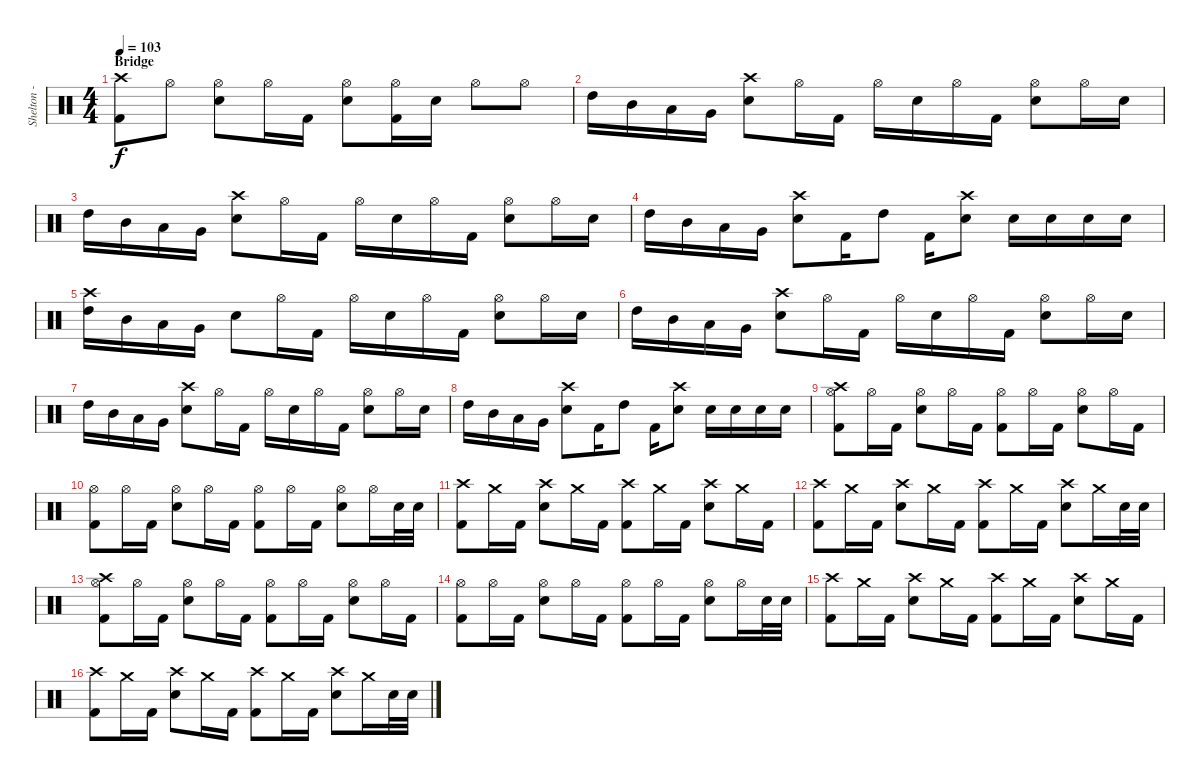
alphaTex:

\track ("Shelton - Drums" "Shelton - ") {instrument percussion}
\staff {score}
\articulation defaults
\ts (4 4)
\section ("" "Bridge")
\tempo 103
\clef neutral
\ks c
("Crash high (hit)" "Kick (hit) 2").8{dy f} "Hi-Hat (open)".8 ("Hi-Hat (open)" "Electric Snare (hit)").8 "Hi-Hat (open)".16 "Kick (hit) 2".16 ("Hi-Hat (open)" "Electric Snare (hit)").8 ("Hi-Hat (open)" "Kick (hit) 2").16 "Electric Snare (hit)".16 "Hi-Hat (open)".8 "Hi-Hat (open)".8 |
"High Tom (hit)".16 "Mid Tom (hit)".16 "Low Tom (hit)".16 "Very Low Tom (hit)".16 ("Crash high (hit)" "Electric Snare (hit)").8 "Hi-Hat (open)".16 "Kick (hit) 2".16 "Hi-Hat (open)".16 "Electric Snare (hit)".16 "Hi-Hat (open)".16 "Kick (hit) 2".16 ("Hi-Hat (open)" "Electric Snare (hit)").8 "Hi-Hat (open)".16 "Electric Snare (hit)".16 |
"High Tom (hit)".16 "Mid Tom (hit)".16 "Low Tom (hit)".16 "Very Low Tom (hit)".16 ("Crash high (hit)" "Electric Snare (hit)").8 "Hi-Hat (open)".16 "Kick (hit) 2".16 "Hi-Hat (open)".16 "Electric Snare (hit)".16 "Hi-Hat (open)".16 "Kick (hit) 2".16 ("Hi-Hat (open)" "Electric Snare (hit)").8 "Hi-Hat (open)".16 "Electric Snare (hit)".16 |
"High Tom (hit)".16 "Mid Tom (hit)".16 "Low Tom (hit)".16 "Very Low Tom (hit)".16 ("Crash high (hit)" "Electric Snare (hit)").8 "Kick (hit) 2".16 "High Tom (hit)".8 "Kick (hit) 2".16 ("Crash high (hit)" "Electric Snare (hit)").8 "Electric Snare (hit)".16 "Electric Snare (hit)".16 "Electric Snare (hit)".16 "Electric Snare (hit)".16 |
("Crash high (hit)" "High Tom (hit)").16 "Mid Tom (hit)".16 "Low Tom (hit)".16 "Very Low Tom (hit)".16 "Electric Snare (hit)".8 "Hi-Hat (open)".16 "Kick (hit) 2".16 "Hi-Hat (open)".16 "Electric Snare (hit)".16 "Hi-Hat (open)".16 "Kick (hit) 2".16 ("Hi-Hat (open)" "Electric Snare (hit)").8 "Hi-Hat (open)".16 "Electric Snare (hit)".16 |
"High Tom (hit)".16 "Mid Tom (hit)".16 "Low Tom (hit)".16 "Very Low Tom (hit)".16 ("Crash high (hit)" "Electric Snare (hit)").8 "Hi-Hat (open)".16 "Kick (hit) 2".16 "Hi-Hat (open)".16 "Electric Snare (hit)".16 "Hi-Hat (open)".16 "Kick (hit) 2".16 ("Hi-Hat (open)" "Electric Snare (hit)").8 "Hi-Hat (open)".16 "Electric Snare (hit)".16 |
"High Tom (hit)".16 "Mid Tom (hit)".16 "Low Tom (hit)".16 "Very Low Tom (hit)".16 ("Crash high (hit)" "Electric Snare (hit)").8 "Hi-Hat (open)".16 "Kick (hit) 2".16 "Hi-Hat (open)".16 "Electric Snare (hit)".16 "Hi-Hat (open)".16 "Kick (hit) 2".16 ("Hi-Hat (open)" "Electric Snare (hit)").8 "Hi-Hat (open)".16 "Electric Snare (hit)".16 |
"High Tom (hit)".16 "Mid Tom (hit)".16 "Low Tom (hit)".16 "Very Low Tom (hit)".16 ("Crash high (hit)" "Electric Snare (hit)").8 "Kick (hit) 2".16 "High Tom (hit)".8 "Kick (hit) 2".16 ("Crash high (hit)" "Electric Snare (hit)").8 "Electric Snare (hit)".16 "Electric Snare (hit)".16 "Electric Snare (hit)".16 "Electric Snare (hit)".16 |
("Hi-Hat (open)" "Crash high (hit)" "Kick (hit) 2").8 "Hi-Hat (open)".16 "Kick (hit) 2".16 ("Hi-Hat (open)" "Electric Snare (hit)").8 "Hi-Hat (open)".16 "Kick (hit) 2".16 ("Hi-Hat (open)" "Kick (hit) 2").8 "Hi-Hat (open)".16 "Kick (hit) 2".16 ("Hi-Hat (open)" "Electric Snare (hit)").8 "Hi-Hat (open)".16 "Kick (hit) 2".16 |
("Hi-Hat (open)" "Kick (hit) 2").8 "Hi-Hat (open)".16 "Kick (hit) 2".16 ("Hi-Hat (open)" "Electric Snare (hit)").8 "Hi-Hat (open)".16 "Kick (hit) 2".16 ("Hi-Hat (open)" "Kick (hit) 2").8 "Hi-Hat (open)".16 "Kick (hit) 2".16 ("Hi-Hat (open)" "Electric Snare (hit)").8 "Hi-Hat (open)".16 "Electric Snare (hit)".32 "Electric Snare (hit)".32 |
("Crash high (hit)" "Kick (hit) 2").8 "Crash medium (hit)".16 "Kick (hit) 2".16 ("Crash high (hit)" "Electric Snare (hit)").8 "Crash medium (hit)".16 "Kick (hit) 2".16 ("Crash high (hit)" "Kick (hit) 2").8 "Crash medium (hit)".16 "Kick (hit) 2".16 ("Crash high (hit)" "Electric Snare (hit)").8 "Crash medium (hit)".16 "Kick (hit) 2".16 |
("Crash high (hit)" "Kick (hit) 2").8 "Crash medium (hit)".16 "Kick (hit) 2".16 ("Crash high (hit)" "Electric Snare (hit)").8 "Crash medium (hit)".16 "Kick (hit) 2".16 ("Crash high (hit)" "Kick (hit) 2").8 "Crash medium (hit)".16 "Kick (hit) 2".16 ("Crash high (hit)" "Electric Snare (hit)").8 "Crash medium (hit)".16 "Electric Snare (hit)".32 "Electric Snare (hit)".32 |
("Hi-Hat (open)" "Crash high (hit)" "Kick (hit) 2").8 "Hi-Hat (open)".16 "Kick (hit) 2".16 ("Hi-Hat (open)" "Electric Snare (hit)").8 "Hi-Hat (open)".16 "Kick (hit) 2".16 ("Hi-Hat (open)" "Kick (hit) 2").8 "Hi-Hat (open)".16 "Kick (hit) 2".16 ("Hi-Hat (open)" "Electric Snare (hit)").8 "Hi-Hat (open)".16 "Kick (hit) 2".16 |
("Hi-Hat (open)" "Kick (hit) 2").8 "Hi-Hat (open)".16 "Kick (hit) 2".16 ("Hi-Hat (open)" "Electric Snare (hit)").8 "Hi-Hat (open)".16 "Kick (hit) 2".16 ("Hi-Hat (open)" "Kick (hit) 2").8 "Hi-Hat (open)".16 "Kick (hit) 2".16 ("Hi-Hat (open)" "Electric Snare (hit)").8 "Hi-Hat (open)".16 "Electric Snare (hit)".32 "Electric Snare (hit)".32 |
("Crash high (hit)" "Kick (hit) 2").8 "Crash medium (hit)".16 "Kick (hit) 2".16 ("Crash high (hit)" "Electric Snare (hit)").8 "Crash medium (hit)".16 "Kick (hit) 2".16 ("Crash high (hit)" "Kick (hit) 2").8 "Crash medium (hit)".16 "Kick (hit) 2".16 ("Crash high (hit)" "Electric Snare (hit)").8 "Crash medium (hit)".16 "Kick (hit) 2".16 |
("Crash high (hit)" "Kick (hit) 2").8 "Crash medium (hit)".16 "Kick (hit) 2".16 ("Crash high (hit)" "Electric Snare (hit)").8 "Crash medium (hit)".16 "Kick (hit) 2".16 ("Crash high (hit)" "Kick (hit) 2").8 "Crash medium (hit)".16 "Kick (hit) 2".16 ("Crash high (hit)" "Electric Snare (hit)").8 "Crash medium (hit)".16 "Electric Snare (hit)".32 "Electric Snare (hit)".32
